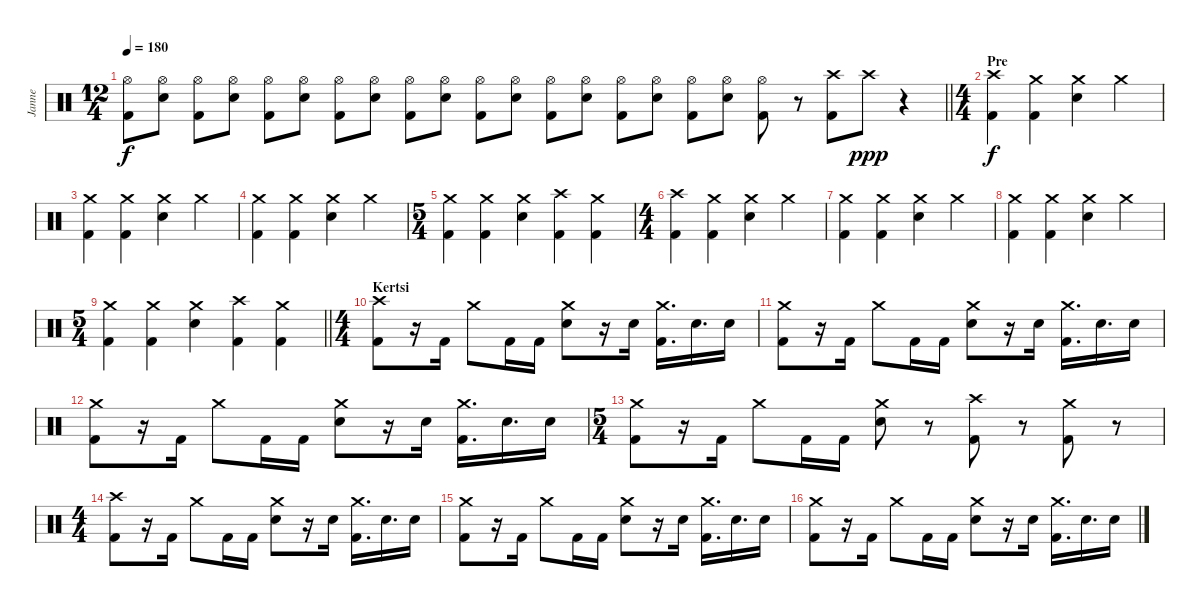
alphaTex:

\track ("Janne" "Janne") {instrument percussion}
\staff {score}
\articulation defaults
\ts (12 4)
\tempo 180
\clef neutral
\barLineRight lightlight
\ks c
("Hi-Hat (open)" "Kick (hit) 2").8{dy f} ("Hi-Hat (open)" "Electric Snare (hit)").8 ("Hi-Hat (open)" "Kick (hit) 2").8 ("Hi-Hat (open)" "Electric Snare (hit)").8 ("Hi-Hat (open)" "Kick (hit) 2").8 ("Hi-Hat (open)" "Electric Snare (hit)").8 ("Hi-Hat (open)" "Kick (hit) 2").8 ("Hi-Hat (open)" "Electric Snare (hit)").8 ("Hi-Hat (open)" "Kick (hit) 2").8 ("Hi-Hat (open)" "Electric Snare (hit)").8 ("Hi-Hat (open)" "Kick (hit) 2").8 ("Hi-Hat (open)" "Electric Snare (hit)").8 ("Hi-Hat (open)" "Kick (hit) 2").8 ("Hi-Hat (open)" "Electric Snare (hit)").8 ("Hi-Hat (open)" "Kick (hit) 2").8 ("Hi-Hat (open)" "Electric Snare (hit)").8 ("Hi-Hat (open)" "Kick (hit) 2").8 ("Hi-Hat (open)" "Electric Snare (hit)").8 ("Hi-Hat (open)" "Kick (hit) 2").8 r.8 ("Crash high (hit)" "Kick (hit) 2").8 "Crash high (hit)".8{dy ppp} r.4 |
\ts (4 4)
\section ("" "Pre")
("Crash high (hit)" "Kick (hit) 2").4{dy f} ("Crash medium (hit)" "Kick (hit) 2").4 ("Crash medium (hit)" "Electric Snare (hit)").4 "Crash medium (hit)".4 |
("Crash medium (hit)" "Kick (hit) 2").4 ("Crash medium (hit)" "Kick (hit) 2").4 ("Crash medium (hit)" "Electric Snare (hit)").4 "Crash medium (hit)".4 |
("Crash medium (hit)" "Kick (hit) 2").4 ("Crash medium (hit)" "Kick (hit) 2").4 ("Crash medium (hit)" "Electric Snare (hit)").4 "Crash medium (hit)".4 |
\ts (5 4)
("Crash medium (hit)" "Kick (hit) 2").4 ("Crash medium (hit)" "Kick (hit) 2").4 ("Crash medium (hit)" "Electric Snare (hit)").4 ("Crash high (hit)" "Kick (hit) 2").4 ("Crash medium (hit)" "Kick (hit) 2").4 |
\ts (4 4)
("Crash high (hit)" "Kick (hit) 2").4 ("Crash medium (hit)" "Kick (hit) 2").4 ("Crash medium (hit)" "Electric Snare (hit)").4 "Crash medium (hit)".4 |
("Crash medium (hit)" "Kick (hit) 2").4 ("Crash medium (hit)" "Kick (hit) 2").4 ("Crash medium (hit)" "Electric Snare (hit)").4 "Crash medium (hit)".4 |
("Crash medium (hit)" "Kick (hit) 2").4 ("Crash medium (hit)" "Kick (hit) 2").4 ("Crash medium (hit)" "Electric Snare (hit)").4 "Crash medium (hit)".4 |
\ts (5 4)
\barLineRight lightlight
("Crash medium (hit)" "Kick (hit) 2").4 ("Crash medium (hit)" "Kick (hit) 2").4 ("Crash medium (hit)" "Electric Snare (hit)").4 ("Crash high (hit)" "Kick (hit) 2").4 ("Crash medium (hit)" "Kick (hit) 2").4 |
\ts (4 4)
\section ("" "Kertsi")
("Crash high (hit)" "Kick (hit) 2").8 r.16 "Kick (hit) 2".16 "Crash medium (hit)".8 "Kick (hit) 2".16 "Kick (hit) 2".16 ("Crash medium (hit)" "Electric Snare (hit)").8 r.16 "Electric Snare (hit)".16 ("Crash medium (hit)" "Kick (hit) 2").16{d} "Electric Snare (hit)".16{d} "Electric Snare (hit)".16 |
("Crash medium (hit)" "Kick (hit) 2").8 r.16 "Kick (hit) 2".16 "Crash medium (hit)".8 "Kick (hit) 2".16 "Kick (hit) 2".16 ("Crash medium (hit)" "Electric Snare (hit)").8 r.16 "Electric Snare (hit)".16 ("Crash medium (hit)" "Kick (hit) 2").16{d} "Electric Snare (hit)".16{d} "Electric Snare (hit)".16 |
("Crash medium (hit)" "Kick (hit) 2").8 r.16 "Kick (hit) 2".16 "Crash medium (hit)".8 "Kick (hit) 2".16 "Kick (hit) 2".16 ("Crash medium (hit)" "Electric Snare (hit)").8 r.16 "Electric Snare (hit)".16 ("Crash medium (hit)" "Kick (hit) 2").16{d} "Electric Snare (hit)".16{d} "Electric Snare (hit)".16 |
\ts (5 4)
("Crash medium (hit)" "Kick (hit) 2").8 r.16 "Kick (hit) 2".16 "Crash medium (hit)".8 "Kick (hit) 2".16 "Kick (hit) 2".16 ("Crash medium (hit)" "Electric Snare (hit)").8 r.8 ("Crash high (hit)" "Kick (hit) 2").8 r.8 ("Crash medium (hit)" "Kick (hit) 2").8 r.8 |
\ts (4 4)
("Crash high (hit)" "Kick (hit) 2").8 r.16 "Kick (hit) 2".16 "Crash medium (hit)".8 "Kick (hit) 2".16 "Kick (hit) 2".16 ("Crash medium (hit)" "Electric Snare (hit)").8 r.16 "Electric Snare (hit)".16 ("Crash medium (hit)" "Kick (hit) 2").16{d} "Electric Snare (hit)".16{d} "Electric Snare (hit)".16 |
("Crash medium (hit)" "Kick (hit) 2").8 r.16 "Kick (hit) 2".16 "Crash medium (hit)".8 "Kick (hit) 2".16 "Kick (hit) 2".16 ("Crash medium (hit)" "Electric Snare (hit)").8 r.16 "Electric Snare (hit)".16 ("Crash medium (hit)" "Kick (hit) 2").16{d} "Electric Snare (hit)".16{d} "Electric Snare (hit)".16 |
("Crash medium (hit)" "Kick (hit) 2").8 r.16 "Kick (hit) 2".16 "Crash medium (hit)".8 "Kick (hit) 2".16 "Kick (hit) 2".16 ("Crash medium (hit)" "Electric Snare (hit)").8 r.16 "Electric Snare (hit)".16 ("Crash medium (hit)" "Kick (hit) 2").16{d} "Electric Snare (hit)".16{d} "Electric Snare (hit)".16
